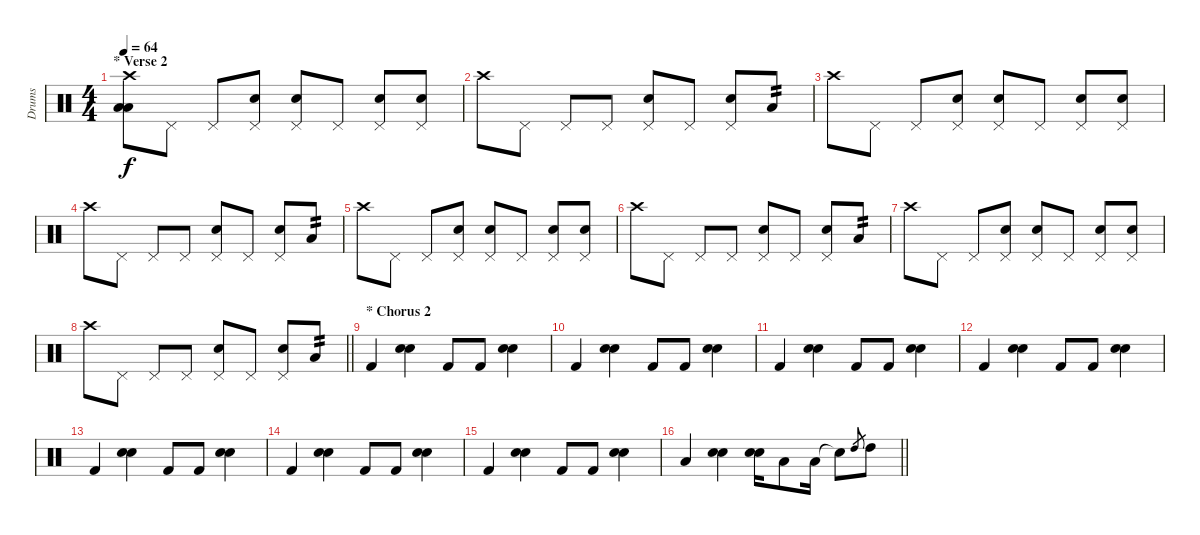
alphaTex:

\track ("Drums" "Drums") {instrument percussion}
\staff {score}
\articulation defaults
\ts (4 4)
\section ("" "* Verse 2")
\tempo 64
\clef neutral
\ks c
("Crash high (hit)" "Low Tom (hit)" "Low Floor Tom (hit)").8{dy f} "Pedal Hi-Hat (hit)".8 "Pedal Hi-Hat (hit)".8 ("Pedal Hi-Hat (hit)" "Electric Snare (hit)").8 ("Pedal Hi-Hat (hit)" "Electric Snare (hit)").8 "Pedal Hi-Hat (hit)".8 ("Pedal Hi-Hat (hit)" "Electric Snare (hit)").8 ("Pedal Hi-Hat (hit)" "Electric Snare (hit)").8 |
"Crash high (hit)".8 "Pedal Hi-Hat (hit)".8 "Pedal Hi-Hat (hit)".8 "Pedal Hi-Hat (hit)".8 ("Pedal Hi-Hat (hit)" "Electric Snare (hit)").8 "Pedal Hi-Hat (hit)".8 ("Pedal Hi-Hat (hit)" "Electric Snare (hit)").8 "Low Tom (hit)".8{tp 2} |
"Crash high (hit)".8 "Pedal Hi-Hat (hit)".8 "Pedal Hi-Hat (hit)".8 ("Pedal Hi-Hat (hit)" "Electric Snare (hit)").8 ("Pedal Hi-Hat (hit)" "Electric Snare (hit)").8 "Pedal Hi-Hat (hit)".8 ("Pedal Hi-Hat (hit)" "Electric Snare (hit)").8 ("Pedal Hi-Hat (hit)" "Electric Snare (hit)").8 |
"Crash high (hit)".8 "Pedal Hi-Hat (hit)".8 "Pedal Hi-Hat (hit)".8 "Pedal Hi-Hat (hit)".8 ("Pedal Hi-Hat (hit)" "Electric Snare (hit)").8 "Pedal Hi-Hat (hit)".8 ("Pedal Hi-Hat (hit)" "Electric Snare (hit)").8 "Low Tom (hit)".8{tp 2} |
"Crash high (hit)".8 "Pedal Hi-Hat (hit)".8 "Pedal Hi-Hat (hit)".8 ("Pedal Hi-Hat (hit)" "Electric Snare (hit)").8 ("Pedal Hi-Hat (hit)" "Electric Snare (hit)").8 "Pedal Hi-Hat (hit)".8 ("Pedal Hi-Hat (hit)" "Electric Snare (hit)").8 ("Pedal Hi-Hat (hit)" "Electric Snare (hit)").8 |
"Crash high (hit)".8 "Pedal Hi-Hat (hit)".8 "Pedal Hi-Hat (hit)".8 "Pedal Hi-Hat (hit)".8 ("Pedal Hi-Hat (hit)" "Electric Snare (hit)").8 "Pedal Hi-Hat (hit)".8 ("Pedal Hi-Hat (hit)" "Electric Snare (hit)").8 "Low Tom (hit)".8{tp 2} |
"Crash high (hit)".8 "Pedal Hi-Hat (hit)".8 "Pedal Hi-Hat (hit)".8 ("Pedal Hi-Hat (hit)" "Electric Snare (hit)").8 ("Pedal Hi-Hat (hit)" "Electric Snare (hit)").8 "Pedal Hi-Hat (hit)".8 ("Pedal Hi-Hat (hit)" "Electric Snare (hit)").8 ("Pedal Hi-Hat (hit)" "Electric Snare (hit)").8 |
\barLineRight lightlight "Crash high (hit)".8 "Pedal Hi-Hat (hit)".8 "Pedal Hi-Hat (hit)".8 "Pedal Hi-Hat (hit)".8
("Pedal Hi-Hat (hit)" "Electric Snare (hit)").8 "Pedal Hi-Hat (hit)".8 ("Pedal Hi-Hat (hit)" "Electric Snare (hit)").8 "Low Tom (hit)".8{tp 2} |
\section ("" "* Chorus 2")
"Kick (hit) 2".4 ("Snare (hit) 2" "Electric Snare (hit)").4 "Kick (hit) 2".8 "Kick (hit) 2".8 ("Snare (hit) 2" "Electric Snare (hit)").4 |
"Kick (hit) 2".4 ("Snare (hit) 2" "Electric Snare (hit)").4 "Kick (hit) 2".8 "Kick (hit) 2".8 ("Snare (hit) 2" "Electric Snare (hit)").4 |
"Kick (hit) 2".4 ("Snare (hit) 2" "Electric Snare (hit)").4 "Kick (hit) 2".8 "Kick (hit) 2".8 ("Snare (hit) 2" "Electric Snare (hit)").4 |
"Kick (hit) 2".4 ("Snare (hit) 2" "Electric Snare (hit)").4 "Kick (hit) 2".8 "Kick (hit) 2".8 ("Snare (hit) 2" "Electric Snare (hit)").4 |
"Kick (hit) 2".4 ("Snare (hit) 2" "Electric Snare (hit)").4 "Kick (hit) 2".8 "Kick (hit) 2".8 ("Snare (hit) 2" "Electric Snare (hit)").4 |
"Kick (hit) 2".4 ("Snare (hit) 2" "Electric Snare (hit)").4 "Kick (hit) 2".8 "Kick (hit) 2".8 ("Snare (hit) 2" "Electric Snare (hit)").4 |
"Kick (hit) 2".4 ("Snare (hit) 2" "Electric Snare (hit)").4 "Kick (hit) 2".8 "Kick (hit) 2".8 ("Snare (hit) 2" "Electric Snare (hit)").4 |
\barLineRight lightlight "Low Tom (hit)".4
("Snare (hit) 2" "Electric Snare (hit)").4 ("Electric Snare (hit)" "Snare (hit) 2").16 "Low Tom (hit)".8 "Low Tom (hit)".16 "Snare (hit)"{t}.8 "High Tom (hit)".8{gr} "High Tom (hit)".8
